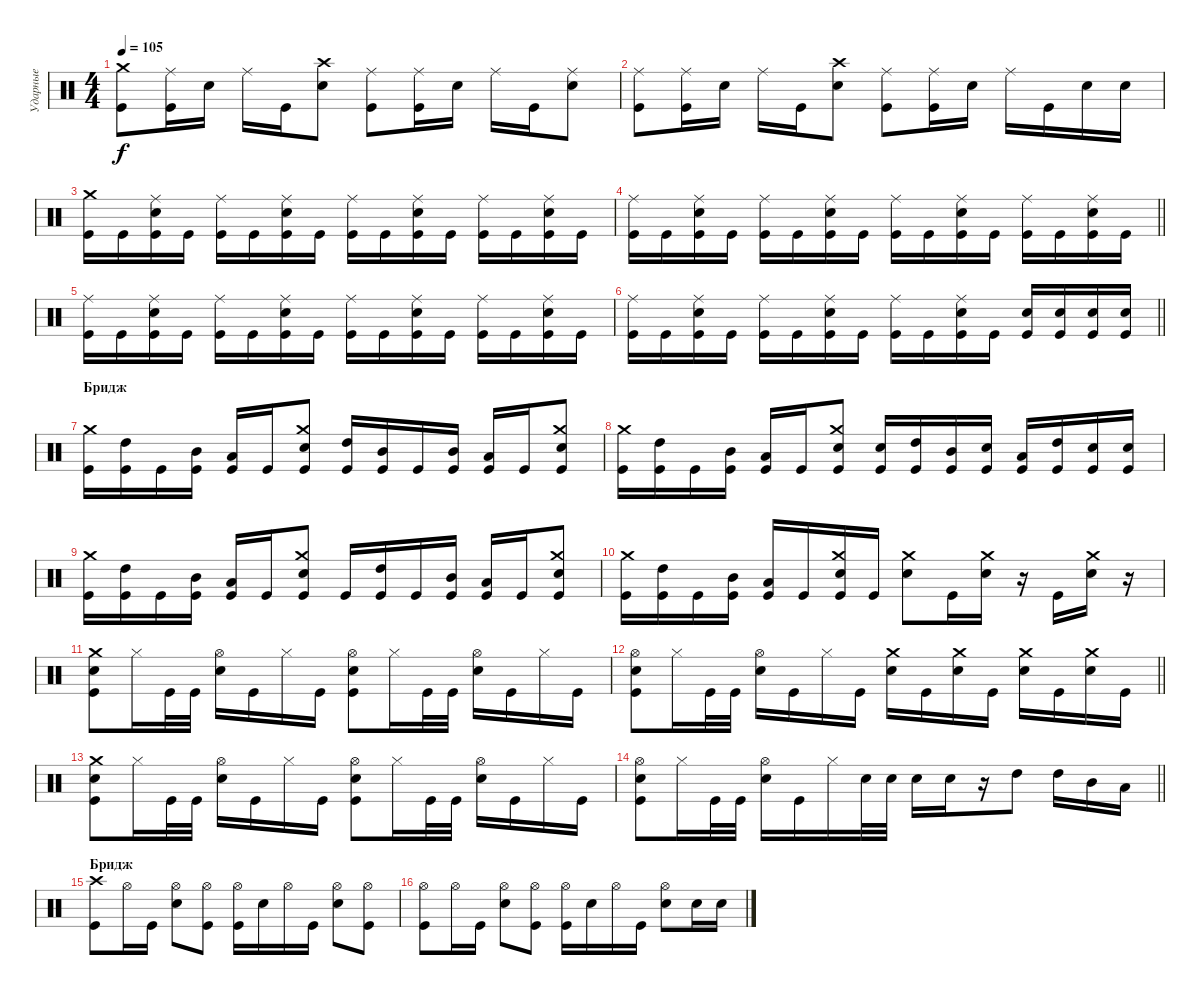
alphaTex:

\track ("Ударные" "Ударные") {instrument percussion}
\staff {score}
\articulation defaults
\ts (4 4)
\tempo 105
\clef neutral
\ks c
("Kick (hit)" "Crash medium (hit)").8{dy f} ("Kick (hit)" "Ride (middle)").16 "Snare (hit) 2".16 "Ride (middle)".16 "Kick (hit)".16 ("Snare (hit) 2" "Crash high (hit)").8 ("Kick (hit)" "Ride (middle)").8 ("Kick (hit)" "Ride (middle)").16 "Snare (hit) 2".16 "Ride (middle)".16 "Kick (hit)".16 ("Snare (hit) 2" "Ride (middle)").8 |
("Kick (hit)" "Ride (middle)").8 ("Kick (hit)" "Ride (middle)").16 "Snare (hit) 2".16 "Ride (middle)".16 "Kick (hit)".16 ("Snare (hit) 2" "Crash high (hit)").8 ("Kick (hit)" "Ride (middle)").8 ("Kick (hit)" "Ride (middle)").16 "Snare (hit) 2".16 "Ride (middle)".16 "Kick (hit)".16 "Snare (hit) 2".16 "Snare (hit) 2".16 |
("Kick (hit)" "Crash medium (hit)").16 "Kick (hit)".16 ("Kick (hit)" "Snare (hit) 2" "Ride (middle)").16 "Kick (hit)".16 ("Kick (hit)" "Ride (middle)").16 "Kick (hit)".16 ("Kick (hit)" "Snare (hit) 2" "Ride (middle)").16 "Kick (hit)".16 ("Kick (hit)" "Ride (middle)").16 "Kick (hit)".16 ("Kick (hit)" "Snare (hit) 2" "Ride (middle)").16 "Kick (hit)".16 ("Kick (hit)" "Ride (middle)").16 "Kick (hit)".16 ("Kick (hit)" "Snare (hit) 2" "Ride (middle)").16 "Kick (hit)".16 |
\barLineRight lightlight
("Kick (hit)" "Ride (middle)").16 "Kick (hit)".16 ("Kick (hit)" "Snare (hit) 2" "Ride (middle)").16 "Kick (hit)".16 ("Kick (hit)" "Ride (middle)").16 "Kick (hit)".16 ("Kick (hit)" "Snare (hit) 2" "Ride (middle)").16 "Kick (hit)".16 ("Kick (hit)" "Ride (middle)").16 "Kick (hit)".16 ("Kick (hit)" "Snare (hit) 2" "Ride (middle)").16 "Kick (hit)".16 ("Kick (hit)" "Ride (middle)").16 "Kick (hit)".16 ("Kick (hit)" "Snare (hit) 2" "Ride (middle)").16 "Kick (hit)".16 |
("Kick (hit)" "Ride (middle)").16 "Kick (hit)".16 ("Kick (hit)" "Snare (hit) 2" "Ride (middle)").16 "Kick (hit)".16 ("Kick (hit)" "Ride (middle)").16 "Kick (hit)".16 ("Kick (hit)" "Snare (hit) 2" "Ride (middle)").16 "Kick (hit)".16 ("Kick (hit)" "Ride (middle)").16 "Kick (hit)".16 ("Kick (hit)" "Snare (hit) 2" "Ride (middle)").16 "Kick (hit)".16 ("Kick (hit)" "Ride (middle)").16 "Kick (hit)".16 ("Kick (hit)" "Snare (hit) 2" "Ride (middle)").16 "Kick (hit)".16 |
\barLineRight lightlight
("Kick (hit)" "Ride (middle)").16 "Kick (hit)".16 ("Kick (hit)" "Snare (hit) 2" "Ride (middle)").16 "Kick (hit)".16 ("Kick (hit)" "Ride (middle)").16 "Kick (hit)".16 ("Kick (hit)" "Snare (hit) 2" "Ride (middle)").16 "Kick (hit)".16 ("Kick (hit)" "Ride (middle)").16 "Kick (hit)".16 ("Kick (hit)" "Snare (hit) 2" "Ride (middle)").16 "Kick (hit)".16 ("Kick (hit)" "Snare (hit) 2").16 ("Kick (hit)" "Snare (hit) 2").16 ("Kick (hit)" "Snare (hit) 2").16 ("Kick (hit)" "Snare (hit) 2").16 |
\section ("" "Бридж")
("Kick (hit)" "Crash medium (hit)").16 ("Kick (hit)" "High Tom (hit)").16 "Kick (hit)".16 ("Kick (hit)" "Mid Tom (hit)").16 ("Kick (hit)" "Low Tom (hit)").16 "Kick (hit)".16 ("Kick (hit)" "Snare (hit) 2" "Crash medium (hit)").8 ("Kick (hit)" "High Tom (hit)").16 ("Kick (hit)" "Mid Tom (hit)").16 "Kick (hit)".16 ("Kick (hit)" "Mid Tom (hit)").16 ("Kick (hit)" "Low Tom (hit)").16 "Kick (hit)".16 ("Kick (hit)" "Snare (hit) 2" "Crash medium (hit)").8 |
("Kick (hit)" "Crash medium (hit)").16 ("Kick (hit)" "High Tom (hit)").16 "Kick (hit)".16 ("Kick (hit)" "Mid Tom (hit)").16 ("Kick (hit)" "Low Tom (hit)").16 "Kick (hit)".16 ("Kick (hit)" "Snare (hit) 2" "Crash medium (hit)").8 ("Kick (hit)" "Snare (hit) 2").16 ("Kick (hit)" "High Tom (hit)").16 ("Kick (hit)" "Mid Tom (hit)").16 ("Kick (hit)" "Snare (hit) 2").16 ("Kick (hit)" "Low Tom (hit)").16 ("Kick (hit)" "High Tom (hit)").16 ("Kick (hit)" "Snare (hit) 2").16 ("Kick (hit)" "Snare (hit) 2").16 |
("Kick (hit)" "Crash medium (hit)").16 ("Kick (hit)" "High Tom (hit)").16 "Kick (hit)".16 ("Kick (hit)" "Mid Tom (hit)").16 ("Kick (hit)" "Low Tom (hit)").16 "Kick (hit)".16 ("Kick (hit)" "Snare (hit) 2" "Crash medium (hit)").8 "Kick (hit)".16 ("Kick (hit)" "High Tom (hit)").16 "Kick (hit)".16 ("Kick (hit)" "Mid Tom (hit)").16 ("Kick (hit)" "Low Tom (hit)").16 "Kick (hit)".16 ("Kick (hit)" "Snare (hit) 2" "Crash medium (hit)").8 |
("Kick (hit)" "Crash medium (hit)").16 ("Kick (hit)" "High Tom (hit)").16 "Kick (hit)".16 ("Kick (hit)" "Mid Tom (hit)").16 ("Kick (hit)" "Low Tom (hit)").16 "Kick (hit)".16 ("Kick (hit)" "Snare (hit) 2" "Crash medium (hit)").16 "Kick (hit)".16 ("Snare (hit) 2" "Crash medium (hit)").8 "Kick (hit)".16 ("Snare (hit) 2" "Crash medium (hit)").16 r.16 "Kick (hit)".16 ("Snare (hit) 2" "Crash medium (hit)").16 r.16 |
("Kick (hit)" "Snare (hit) 2" "Crash medium (hit)").8 "Hi-Hat (closed)".16 "Kick (hit)".32 "Kick (hit)".32 ("Snare (hit) 2" "Hi-Hat (open)").16 "Kick (hit)".16 "Hi-Hat (closed)".16 "Kick (hit)".16 ("Kick (hit)" "Snare (hit) 2" "Hi-Hat (open)").8 "Hi-Hat (closed)".16 "Kick (hit)".32 "Kick (hit)".32 ("Snare (hit) 2" "Hi-Hat (open)").16 "Kick (hit)".16 "Hi-Hat (closed)".16 "Kick (hit)".16 |
\barLineRight lightlight
("Kick (hit)" "Snare (hit) 2" "Hi-Hat (open)").8 "Hi-Hat (closed)".16 "Kick (hit)".32 "Kick (hit)".32 ("Snare (hit) 2" "Hi-Hat (open)").16 "Kick (hit)".16 "Hi-Hat (closed)".16 "Kick (hit)".16 ("Snare (hit) 2" "Crash medium (hit)").16 "Kick (hit)".16 ("Snare (hit) 2" "Crash medium (hit)").16 "Kick (hit)".16 ("Snare (hit) 2" "Crash medium (hit)").16 "Kick (hit)".16 ("Snare (hit) 2" "Crash medium (hit)").16 "Kick (hit)".16 |
("Kick (hit)" "Snare (hit) 2" "Crash medium (hit)").8 "Hi-Hat (closed)".16 "Kick (hit)".32 "Kick (hit)".32 ("Snare (hit) 2" "Hi-Hat (open)").16 "Kick (hit)".16 "Hi-Hat (closed)".16 "Kick (hit)".16 ("Kick (hit)" "Snare (hit) 2" "Hi-Hat (open)").8 "Hi-Hat (closed)".16 "Kick (hit)".32 "Kick (hit)".32 ("Snare (hit) 2" "Hi-Hat (open)").16 "Kick (hit)".16 "Hi-Hat (closed)".16 "Kick (hit)".16 |
\barLineRight lightlight
("Kick (hit)" "Snare (hit) 2" "Hi-Hat (open)").8 "Hi-Hat (closed)".16 "Kick (hit)".32 "Kick (hit)".32 ("Snare (hit) 2" "Hi-Hat (open)").16 "Kick (hit)".16 "Hi-Hat (closed)".16 "Snare (hit) 2".32 "Snare (hit) 2".32 "Snare (hit) 2".16 "Snare (hit) 2".16 r.16 "High Tom (hit)".8 "High Tom (hit)".16 "Mid Tom (hit)".16 "Low Tom (hit)".16 |
\section ("" "Бридж")
("Kick (hit)" "Crash high (hit)").8 "Hi-Hat (open)".16 "Kick (hit)".16 ("Snare (hit) 2" "Hi-Hat (open)").8 ("Kick (hit)" "Hi-Hat (open)").8 ("Kick (hit)" "Hi-Hat (open)").16 "Snare (hit) 2".16 "Hi-Hat (open)".16 "Kick (hit)".16 ("Snare (hit) 2" "Hi-Hat (open)").8 ("Kick (hit)" "Hi-Hat (open)").8 |
("Kick (hit)" "Hi-Hat (open)").8 "Hi-Hat (open)".16 "Kick (hit)".16 ("Snare (hit) 2" "Hi-Hat (open)").8 ("Kick (hit)" "Hi-Hat (open)").8 ("Kick (hit)" "Hi-Hat (open)").16 "Snare (hit) 2".16 "Hi-Hat (open)".16 "Kick (hit)".16 ("Snare (hit) 2" "Hi-Hat (open)").8 "Snare (hit) 2".16 "Snare (hit) 2".16
